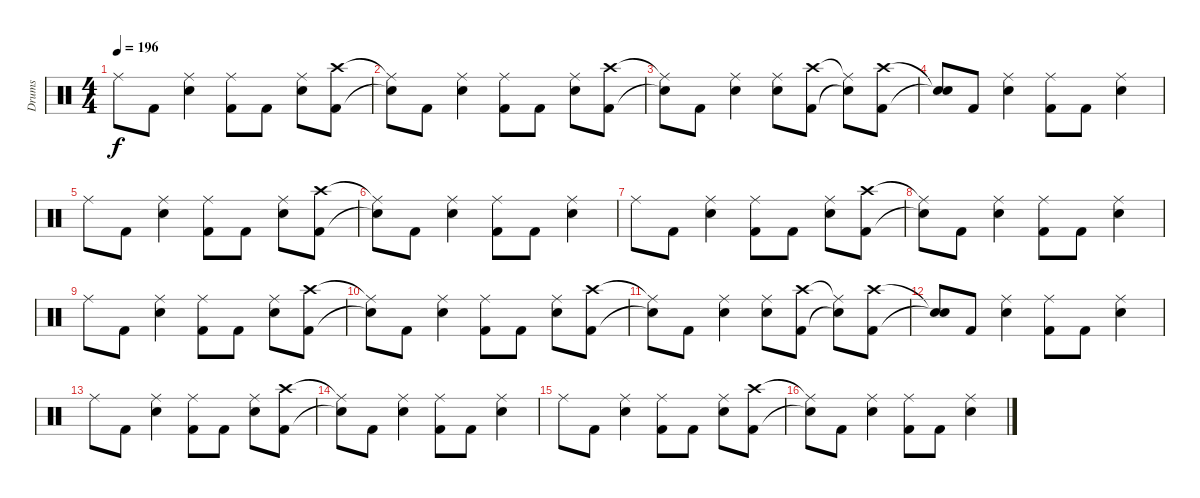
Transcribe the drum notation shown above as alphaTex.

\track ("Drums" "Drums") {instrument percussion}
\staff {score}
\articulation defaults
\ts (4 4)
\tempo 196
\clef neutral
\ks c "Ride (middle)".8{dy f} "Kick (hit) 2".8
("Ride (middle)" "Snare (hit) 2").4 ("Ride (middle)" "Kick (hit) 2").8 "Kick (hit) 2".8 ("Ride (middle)" "Snare (hit) 2").8 ("Crash high (hit)" "Kick (hit) 2").8 |
("Ride (middle)"{t} "Snare (hit)"{t}).8 "Kick (hit) 2".8 ("Ride (middle)" "Snare (hit) 2").4 ("Ride (middle)" "Kick (hit) 2").8 "Kick (hit) 2".8 ("Ride (middle)" "Snare (hit) 2").8 ("Crash high (hit)" "Kick (hit) 2").8 |
("Ride (middle)"{t} "Snare (hit)"{t}).8 "Kick (hit) 2".8 ("Ride (middle)" "Snare (hit) 2").4 ("Ride (middle)" "Snare (hit) 2").8 ("Crash high (hit)" "Kick (hit) 2").8 ("Ride (middle)"{t} "Snare (hit)"{t}).8 ("Crash high (hit)" "Kick (hit) 2").8 |
("Snare (hit)"{t} "Snare (hit)"{t}).8 "Kick (hit) 2".8 ("Ride (middle)" "Snare (hit) 2").4 ("Ride (middle)" "Kick (hit) 2").8 "Kick (hit) 2".8 ("Ride (middle)" "Snare (hit) 2").4 |
"Ride (middle)".8 "Kick (hit) 2".8 ("Ride (middle)" "Snare (hit) 2").4 ("Ride (middle)" "Kick (hit) 2").8 "Kick (hit) 2".8 ("Ride (middle)" "Snare (hit) 2").8 ("Crash high (hit)" "Kick (hit) 2").8 |
("Ride (middle)"{t} "Snare (hit)"{t}).8 "Kick (hit) 2".8 ("Ride (middle)" "Snare (hit) 2").4 ("Ride (middle)" "Kick (hit) 2").8 "Kick (hit) 2".8 ("Ride (middle)" "Snare (hit) 2").4 |
"Ride (middle)".8 "Kick (hit) 2".8 ("Ride (middle)" "Snare (hit) 2").4 ("Ride (middle)" "Kick (hit) 2").8 "Kick (hit) 2".8 ("Ride (middle)" "Snare (hit) 2").8 ("Crash high (hit)" "Kick (hit) 2").8 |
("Ride (middle)"{t} "Snare (hit)"{t}).8 "Kick (hit) 2".8 ("Ride (middle)" "Snare (hit) 2").4 ("Ride (middle)" "Kick (hit) 2").8 "Kick (hit) 2".8 ("Ride (middle)" "Snare (hit) 2").4 |
"Ride (middle)".8 "Kick (hit) 2".8 ("Ride (middle)" "Snare (hit) 2").4 ("Ride (middle)" "Kick (hit) 2").8 "Kick (hit) 2".8 ("Ride (middle)" "Snare (hit) 2").8 ("Crash high (hit)" "Kick (hit) 2").8 |
("Ride (middle)"{t} "Snare (hit)"{t}).8 "Kick (hit) 2".8 ("Ride (middle)" "Snare (hit) 2").4 ("Ride (middle)" "Kick (hit) 2").8 "Kick (hit) 2".8 ("Ride (middle)" "Snare (hit) 2").8 ("Crash high (hit)" "Kick (hit) 2").8 |
("Ride (middle)"{t} "Snare (hit)"{t}).8 "Kick (hit) 2".8 ("Ride (middle)" "Snare (hit) 2").4 ("Ride (middle)" "Snare (hit) 2").8 ("Crash high (hit)" "Kick (hit) 2").8 ("Ride (middle)"{t} "Snare (hit)"{t}).8 ("Crash high (hit)" "Kick (hit) 2").8 |
("Snare (hit)"{t} "Snare (hit)"{t}).8 "Kick (hit) 2".8 ("Ride (middle)" "Snare (hit) 2").4 ("Ride (middle)" "Kick (hit) 2").8 "Kick (hit) 2".8 ("Ride (middle)" "Snare (hit) 2").4 |
"Ride (middle)".8 "Kick (hit) 2".8 ("Ride (middle)" "Snare (hit) 2").4 ("Ride (middle)" "Kick (hit) 2").8 "Kick (hit) 2".8 ("Ride (middle)" "Snare (hit) 2").8 ("Crash high (hit)" "Kick (hit) 2").8 |
("Ride (middle)"{t} "Snare (hit)"{t}).8 "Kick (hit) 2".8 ("Ride (middle)" "Snare (hit) 2").4 ("Ride (middle)" "Kick (hit) 2").8 "Kick (hit) 2".8 ("Ride (middle)" "Snare (hit) 2").4 |
"Ride (middle)".8 "Kick (hit) 2".8 ("Ride (middle)" "Snare (hit) 2").4 ("Ride (middle)" "Kick (hit) 2").8 "Kick (hit) 2".8 ("Ride (middle)" "Snare (hit) 2").8 ("Crash high (hit)" "Kick (hit) 2").8 |
("Ride (middle)"{t} "Snare (hit)"{t}).8 "Kick (hit) 2".8 ("Ride (middle)" "Snare (hit) 2").4 ("Ride (middle)" "Kick (hit) 2").8 "Kick (hit) 2".8 ("Ride (middle)" "Snare (hit) 2").4
